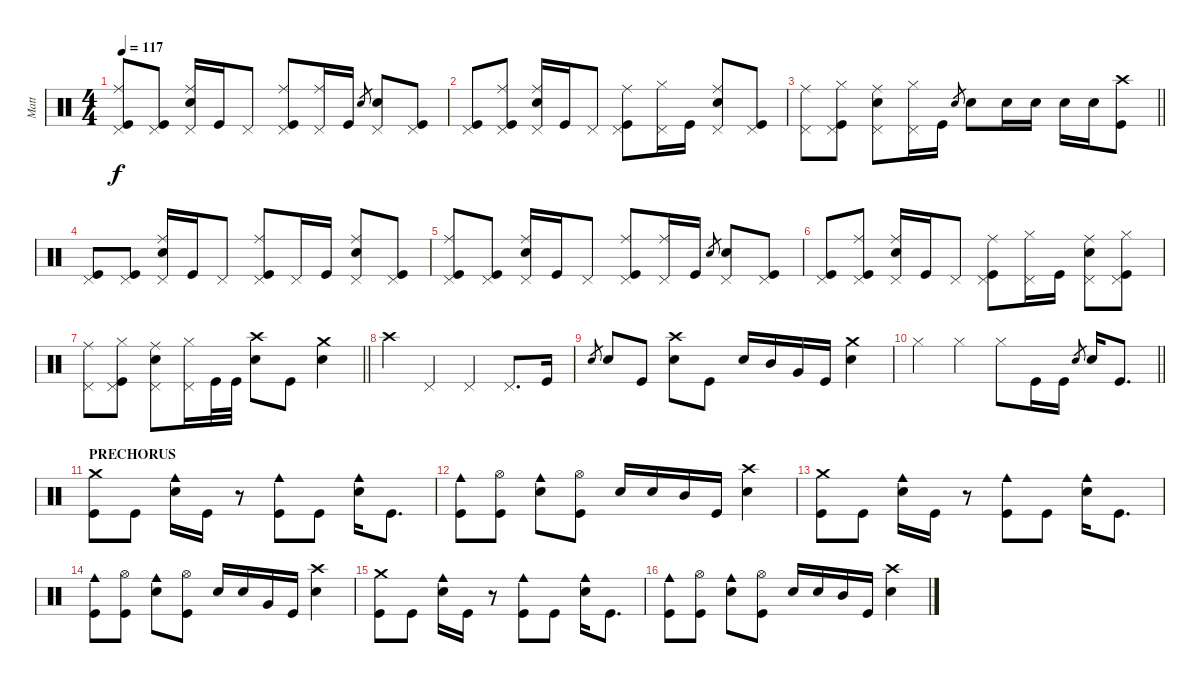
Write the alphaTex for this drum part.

\track ("Matt" "Matt") {instrument percussion}
\staff {score}
\articulation defaults
\ts (4 4)
\tempo 117
\clef neutral
\ks c
("Ride (middle)" "Kick (hit)" "Pedal Hi-Hat (hit)").8{dy f} ("Kick (hit)" "Pedal Hi-Hat (hit)").8 ("Ride (middle)" "Snare (hit) 2" "Pedal Hi-Hat (hit)").16 "Kick (hit)".16 "Pedal Hi-Hat (hit)".8 ("Ride (middle)" "Kick (hit)" "Pedal Hi-Hat (hit)").8 ("Ride (middle)" "Pedal Hi-Hat (hit)").16 "Kick (hit)".16 "Snare (hit) 2".8{gr} ("Snare (hit) 2" "Pedal Hi-Hat (hit)").8 ("Kick (hit)" "Pedal Hi-Hat (hit)").8 |
("Kick (hit)" "Pedal Hi-Hat (hit)").8 ("Ride (middle)" "Kick (hit)" "Pedal Hi-Hat (hit)").8 ("Ride (middle)" "Snare (hit) 2" "Pedal Hi-Hat (hit)").16 "Kick (hit)".16 "Pedal Hi-Hat (hit)".8 ("Ride (middle)" "Kick (hit)" "Pedal Hi-Hat (hit)").8 ("Hi-Hat (closed)" "Pedal Hi-Hat (hit)").16 "Kick (hit)".16 ("Ride (middle)" "Snare (hit) 2" "Pedal Hi-Hat (hit)").8 ("Kick (hit)" "Pedal Hi-Hat (hit)").8 |
\barLineRight lightlight
("Ride (middle)" "Pedal Hi-Hat (hit)").8 ("Hi-Hat (closed)" "Kick (hit)" "Pedal Hi-Hat (hit)").8 ("Ride (middle)" "Snare (hit) 2" "Pedal Hi-Hat (hit)").8 ("Hi-Hat (closed)" "Pedal Hi-Hat (hit)").16 "Kick (hit)".16 "Snare (hit) 2".8{gr} "Snare (hit) 2".8 "Snare (hit) 2".16 "Snare (hit) 2".16 "Snare (hit) 2".16 "Snare (hit) 2".16 ("Crash high (hit)" "Kick (hit)").8 |
("Kick (hit)" "Pedal Hi-Hat (hit)").8 ("Kick (hit)" "Pedal Hi-Hat (hit)").8 ("Ride (middle)" "Snare (hit) 2" "Pedal Hi-Hat (hit)").16 "Kick (hit)".16 "Pedal Hi-Hat (hit)".8 ("Ride (middle)" "Kick (hit)" "Pedal Hi-Hat (hit)").8 "Pedal Hi-Hat (hit)".16 "Kick (hit)".16 ("Ride (middle)" "Snare (hit) 2" "Pedal Hi-Hat (hit)").8 ("Kick (hit)" "Pedal Hi-Hat (hit)").8 |
("Ride (middle)" "Kick (hit)" "Pedal Hi-Hat (hit)").8 ("Kick (hit)" "Pedal Hi-Hat (hit)").8 ("Ride (middle)" "Snare (hit) 2" "Pedal Hi-Hat (hit)").16 "Kick (hit)".16 "Pedal Hi-Hat (hit)".8 ("Ride (middle)" "Kick (hit)" "Pedal Hi-Hat (hit)").8 ("Ride (middle)" "Pedal Hi-Hat (hit)").16 "Kick (hit)".16 "Snare (hit) 2".8{gr} ("Snare (hit) 2" "Pedal Hi-Hat (hit)").8 ("Kick (hit)" "Pedal Hi-Hat (hit)").8 |
("Kick (hit)" "Pedal Hi-Hat (hit)").8 ("Ride (middle)" "Kick (hit)" "Pedal Hi-Hat (hit)").8 ("Ride (middle)" "Snare (hit) 2" "Pedal Hi-Hat (hit)").16 "Kick (hit)".16 "Pedal Hi-Hat (hit)".8 ("Ride (middle)" "Kick (hit)" "Pedal Hi-Hat (hit)").8 ("Hi-Hat (closed)" "Pedal Hi-Hat (hit)").16 "Kick (hit)".16 ("Ride (middle)" "Snare (hit) 2" "Pedal Hi-Hat (hit)").8 ("Hi-Hat (closed)" "Kick (hit)" "Pedal Hi-Hat (hit)").8 |
\barLineRight lightlight
("Ride (middle)" "Pedal Hi-Hat (hit)").8 ("Hi-Hat (closed)" "Kick (hit)" "Pedal Hi-Hat (hit)").8 ("Ride (middle)" "Snare (hit) 2" "Pedal Hi-Hat (hit)").8 ("Hi-Hat (closed)" "Pedal Hi-Hat (hit)").16 "Kick (hit)".32 "Kick (hit)".32 ("Crash high (hit)" "Snare (hit) 2").8 "Kick (hit)".8 ("Crash medium (hit)" "Snare (hit) 2").4 |
"Crash high (hit)".4 "Pedal Hi-Hat (hit)".4 "Pedal Hi-Hat (hit)".4 "Pedal Hi-Hat (hit)".8{d} "Kick (hit)".16 |
"Snare (hit) 2".8{gr} "Snare (hit) 2".8 "Kick (hit)".8 ("Crash high (hit)" "Snare (hit) 2").8 "Kick (hit)".8 "Snare (hit) 2".16 "Mid Tom (hit)".16 "Very Low Tom (hit)".16 "Kick (hit)".16 ("Crash medium (hit)" "Snare (hit) 2").4 |
\barLineRight lightlight "Hi-Hat (closed)".4 "Hi-Hat (closed)".4 "Hi-Hat (closed)".8 "Kick (hit)".16 "Kick (hit)".16 "Snare (hit) 2".8{gr} "Snare (hit) 2".16 "Kick (hit)".8{d}
|
\section ("" "PRECHORUS")
("Crash medium (hit)" "Kick (hit)").8 "Kick (hit)".8 ("Snare (hit) 2" "Cowbell medium (hit)").16 "Kick (hit)".16 r.8 ("Kick (hit)" "Cowbell medium (hit)").8 "Kick (hit)".8 ("Snare (hit) 2" "Cowbell medium (hit)").16 "Kick (hit)".8{d} |
("Kick (hit)" "Cowbell medium (hit)").8 ("Kick (hit)" "Hi-Hat (open)").8 ("Snare (hit) 2" "Cowbell medium (hit)").8 ("Kick (hit)" "Hi-Hat (open)").8 "Snare (hit) 2".16 "Snare (hit) 2".16 "Mid Tom (hit)".16 "Kick (hit)".16 ("Crash high (hit)" "Snare (hit) 2").4 |
("Crash medium (hit)" "Kick (hit)").8 "Kick (hit)".8 ("Snare (hit) 2" "Cowbell medium (hit)").16 "Kick (hit)".16 r.8 ("Kick (hit)" "Cowbell medium (hit)").8 "Kick (hit)".8 ("Snare (hit) 2" "Cowbell medium (hit)").16 "Kick (hit)".8{d} |
("Kick (hit)" "Cowbell medium (hit)").8 ("Kick (hit)" "Hi-Hat (open)").8 ("Snare (hit) 2" "Cowbell medium (hit)").8 ("Kick (hit)" "Hi-Hat (open)").8 "Snare (hit) 2".16 "Snare (hit) 2".16 "Very Low Tom (hit)".16 "Kick (hit)".16 ("Crash high (hit)" "Snare (hit) 2").4 |
("Crash medium (hit)" "Kick (hit)").8 "Kick (hit)".8 ("Snare (hit) 2" "Cowbell medium (hit)").16 "Kick (hit)".16 r.8 ("Kick (hit)" "Cowbell medium (hit)").8 "Kick (hit)".8 ("Snare (hit) 2" "Cowbell medium (hit)").16 "Kick (hit)".8{d} |
("Kick (hit)" "Cowbell medium (hit)").8 ("Kick (hit)" "Hi-Hat (open)").8 ("Snare (hit) 2" "Cowbell medium (hit)").8 ("Kick (hit)" "Hi-Hat (open)").8 "Snare (hit) 2".16 "Snare (hit) 2".16 "Mid Tom (hit)".16 "Kick (hit)".16 ("Crash high (hit)" "Snare (hit) 2").4
